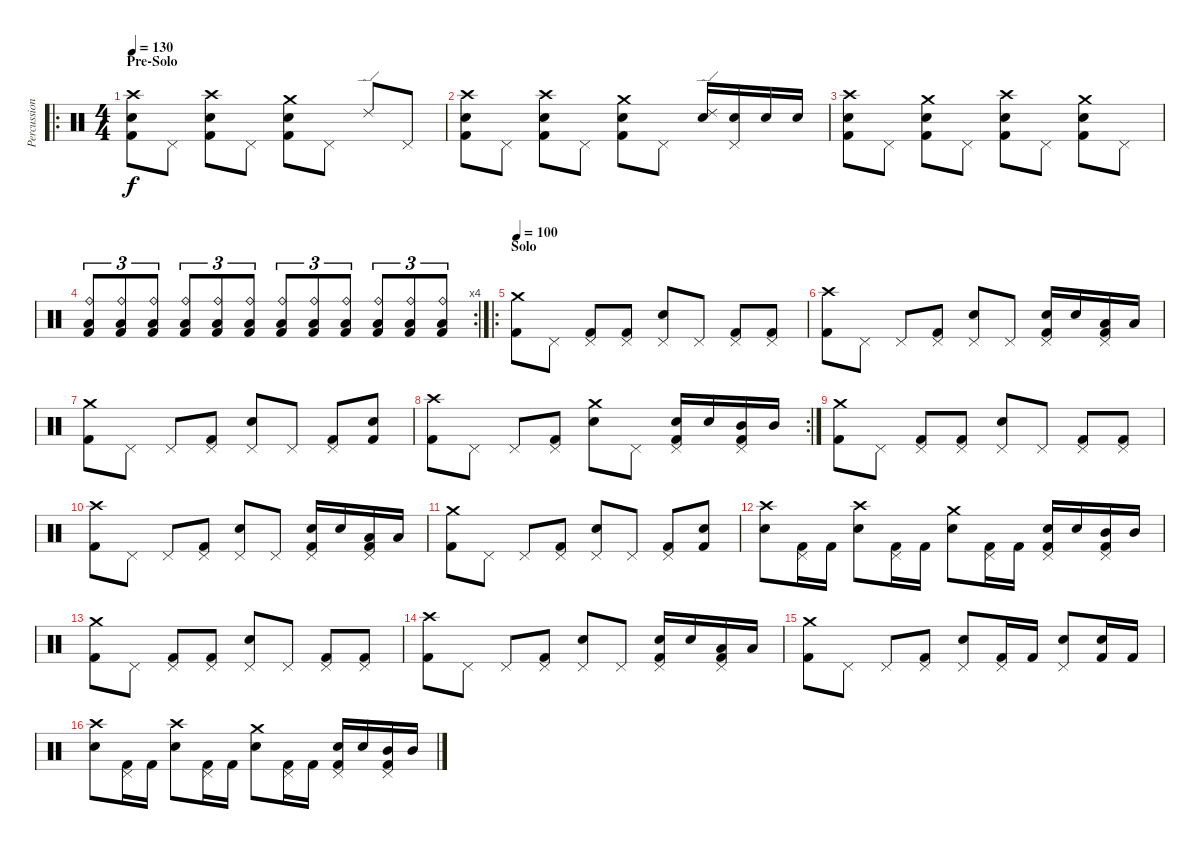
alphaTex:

\track ("Percussion" "Percussion") {instrument percussion}
\staff {score}
\articulation defaults
\ro
\ts (4 4)
\section ("" "Pre-Solo")
\tempo 130
\clef neutral
\ks c
("Crash high (hit)" "Snare (hit) 2" "Kick (hit) 2").8{dy f} "Pedal Hi-Hat (hit)".8 ("Crash high (hit)" "Snare (hit) 2" "Kick (hit) 2").8 "Pedal Hi-Hat (hit)".8 ("Crash medium (hit)" "Snare (hit) 2" "Kick (hit) 2").8 "Pedal Hi-Hat (hit)".8 "Ride (edge) 2".8 "Pedal Hi-Hat (hit)".8 |
("Crash high (hit)" "Snare (hit) 2" "Kick (hit) 2").8 "Pedal Hi-Hat (hit)".8 ("Crash high (hit)" "Snare (hit) 2" "Kick (hit) 2").8 "Pedal Hi-Hat (hit)".8 ("Crash medium (hit)" "Snare (hit) 2" "Kick (hit) 2").8 "Pedal Hi-Hat (hit)".8 ("Ride (edge) 2" "Snare (hit) 2").16 ("Pedal Hi-Hat (hit)" "Snare (hit) 2").16 "Snare (hit) 2".16 "Snare (hit) 2".16 |
("Crash high (hit)" "Snare (hit) 2" "Kick (hit) 2").8 "Pedal Hi-Hat (hit)".8 ("Crash medium (hit)" "Snare (hit) 2" "Kick (hit) 2").8 "Pedal Hi-Hat (hit)".8 ("Crash high (hit)" "Snare (hit) 2" "Kick (hit) 2").8 "Pedal Hi-Hat (hit)".8 ("Crash medium (hit)" "Snare (hit) 2" "Kick (hit) 2").8 "Pedal Hi-Hat (hit)".8 |
\rc 4
("Ride (bell)" "Low Floor Tom (hit)" "Kick (hit) 2").8{tu (3 2)} ("Ride (bell)" "Low Floor Tom (hit)" "Kick (hit) 2").8{tu (3 2)} ("Ride (bell)" "Low Floor Tom (hit)" "Kick (hit) 2").8{tu (3 2)} ("Ride (bell)" "Low Floor Tom (hit)" "Kick (hit) 2").8{tu (3 2)} ("Ride (bell)" "Low Floor Tom (hit)" "Kick (hit) 2").8{tu (3 2)} ("Ride (bell)" "Low Floor Tom (hit)" "Kick (hit) 2").8{tu (3 2)} ("Ride (bell)" "Low Floor Tom (hit)" "Kick (hit) 2").8{tu (3 2)} ("Ride (bell)" "Low Floor Tom (hit)" "Kick (hit) 2").8{tu (3 2)} ("Ride (bell)" "Low Floor Tom (hit)" "Kick (hit) 2").8{tu (3 2)} ("Ride (bell)" "Low Floor Tom (hit)" "Kick (hit) 2").8{tu (3 2)} ("Ride (bell)" "Low Floor Tom (hit)" "Kick (hit) 2").8{tu (3 2)} ("Ride (bell)" "Low Floor Tom (hit)" "Kick (hit) 2").8{tu (3 2)} |
\ro
\section ("" "Solo")
\tempo 100
("Crash medium (hit)" "Kick (hit) 2").8 "Pedal Hi-Hat (hit)".8 ("Pedal Hi-Hat (hit)" "Kick (hit) 2").8 ("Pedal Hi-Hat (hit)" "Kick (hit) 2").8 ("Pedal Hi-Hat (hit)" "Snare (hit) 2").8 "Pedal Hi-Hat (hit)".8 ("Pedal Hi-Hat (hit)" "Kick (hit) 2").8 ("Pedal Hi-Hat (hit)" "Kick (hit) 2").8 |
("Crash high (hit)" "Kick (hit) 2").8 "Pedal Hi-Hat (hit)".8 "Pedal Hi-Hat (hit)".8 ("Pedal Hi-Hat (hit)" "Kick (hit) 2").8 ("Pedal Hi-Hat (hit)" "Snare (hit) 2").8 "Pedal Hi-Hat (hit)".8 ("Pedal Hi-Hat (hit)" "Snare (hit) 2" "Kick (hit) 2").16 "Snare (hit) 2".16 ("Pedal Hi-Hat (hit)" "Low Tom (hit)" "Kick (hit) 2").16 "Low Tom (hit)".16 |
("Crash medium (hit)" "Kick (hit) 2").8 "Pedal Hi-Hat (hit)".8 "Pedal Hi-Hat (hit)".8 ("Pedal Hi-Hat (hit)" "Kick (hit) 2").8 ("Pedal Hi-Hat (hit)" "Snare (hit) 2").8 "Pedal Hi-Hat (hit)".8 ("Pedal Hi-Hat (hit)" "Kick (hit) 2").8 ("Snare (hit)" "Kick (hit) 2").8 |
\rc 2
("Crash high (hit)" "Kick (hit) 2").8 "Pedal Hi-Hat (hit)".8 "Pedal Hi-Hat (hit)".8 ("Pedal Hi-Hat (hit)" "Kick (hit) 2").8 ("Crash medium (hit)" "Snare (hit) 2").8 "Pedal Hi-Hat (hit)".8 ("Pedal Hi-Hat (hit)" "Snare (hit) 2" "Kick (hit) 2").16 "Snare (hit) 2".16 ("Pedal Hi-Hat (hit)" "Mid Tom (hit)" "Kick (hit) 2").16 "Mid Tom (hit)".16 |
("Crash medium (hit)" "Kick (hit) 2").8 "Pedal Hi-Hat (hit)".8 ("Pedal Hi-Hat (hit)" "Kick (hit) 2").8 ("Pedal Hi-Hat (hit)" "Kick (hit) 2").8 ("Pedal Hi-Hat (hit)" "Snare (hit) 2").8 "Pedal Hi-Hat (hit)".8 ("Pedal Hi-Hat (hit)" "Kick (hit) 2").8 ("Pedal Hi-Hat (hit)" "Kick (hit) 2").8 |
("Crash high (hit)" "Kick (hit) 2").8 "Pedal Hi-Hat (hit)".8 "Pedal Hi-Hat (hit)".8 ("Pedal Hi-Hat (hit)" "Kick (hit) 2").8 ("Pedal Hi-Hat (hit)" "Snare (hit) 2").8 "Pedal Hi-Hat (hit)".8 ("Pedal Hi-Hat (hit)" "Snare (hit) 2" "Kick (hit) 2").16 "Snare (hit) 2".16 ("Pedal Hi-Hat (hit)" "Low Tom (hit)" "Kick (hit) 2").16 "Low Tom (hit)".16 |
("Crash medium (hit)" "Kick (hit) 2").8 "Pedal Hi-Hat (hit)".8 "Pedal Hi-Hat (hit)".8 ("Pedal Hi-Hat (hit)" "Kick (hit) 2").8 ("Pedal Hi-Hat (hit)" "Snare (hit) 2").8 "Pedal Hi-Hat (hit)".8 ("Pedal Hi-Hat (hit)" "Kick (hit) 2").8 ("Snare (hit)" "Kick (hit) 2").8 |
("Crash high (hit)" "Snare (hit) 2").8 ("Pedal Hi-Hat (hit)" "Kick (hit) 2").16 "Kick (hit) 2".16 ("Crash high (hit)" "Snare (hit) 2").8 ("Pedal Hi-Hat (hit)" "Kick (hit) 2").16 "Kick (hit) 2".16 ("Crash medium (hit)" "Snare (hit) 2").8 ("Pedal Hi-Hat (hit)" "Kick (hit) 2").16 "Kick (hit) 2".16 ("Pedal Hi-Hat (hit)" "Snare (hit) 2" "Kick (hit) 2").16 "Snare (hit) 2".16 ("Pedal Hi-Hat (hit)" "Mid Tom (hit)" "Kick (hit) 2").16 "Mid Tom (hit)".16 |
("Crash medium (hit)" "Kick (hit) 2").8 "Pedal Hi-Hat (hit)".8 ("Pedal Hi-Hat (hit)" "Kick (hit) 2").8 ("Pedal Hi-Hat (hit)" "Kick (hit) 2").8 ("Pedal Hi-Hat (hit)" "Snare (hit) 2").8 "Pedal Hi-Hat (hit)".8 ("Pedal Hi-Hat (hit)" "Kick (hit) 2").8 ("Pedal Hi-Hat (hit)" "Kick (hit) 2").8 |
("Crash high (hit)" "Kick (hit) 2").8 "Pedal Hi-Hat (hit)".8 "Pedal Hi-Hat (hit)".8 ("Pedal Hi-Hat (hit)" "Kick (hit) 2").8 ("Pedal Hi-Hat (hit)" "Snare (hit) 2").8 "Pedal Hi-Hat (hit)".8 ("Pedal Hi-Hat (hit)" "Snare (hit) 2" "Kick (hit) 2").16 "Snare (hit) 2".16 ("Pedal Hi-Hat (hit)" "Low Tom (hit)" "Kick (hit) 2").16 "Low Tom (hit)".16 |
("Crash medium (hit)" "Kick (hit) 2").8 "Pedal Hi-Hat (hit)".8 "Pedal Hi-Hat (hit)".8 ("Pedal Hi-Hat (hit)" "Kick (hit) 2").8 ("Pedal Hi-Hat (hit)" "Snare (hit) 2").8 ("Pedal Hi-Hat (hit)" "Kick (hit) 2").16 "Kick (hit) 2".16 ("Pedal Hi-Hat (hit)" "Snare (hit) 2").8 ("Snare (hit)" "Kick (hit) 2").16 "Kick (hit) 2".16 |
("Crash high (hit)" "Snare (hit) 2").8 ("Pedal Hi-Hat (hit)" "Kick (hit) 2").16 "Kick (hit) 2".16 ("Crash high (hit)" "Snare (hit) 2").8 ("Pedal Hi-Hat (hit)" "Kick (hit) 2").16 "Kick (hit) 2".16 ("Crash medium (hit)" "Snare (hit) 2").8 ("Pedal Hi-Hat (hit)" "Kick (hit) 2").16 "Kick (hit) 2".16 ("Pedal Hi-Hat (hit)" "Snare (hit) 2" "Kick (hit) 2").16 "Snare (hit) 2".16 ("Pedal Hi-Hat (hit)" "Mid Tom (hit)" "Kick (hit) 2").16 "Mid Tom (hit)".16
